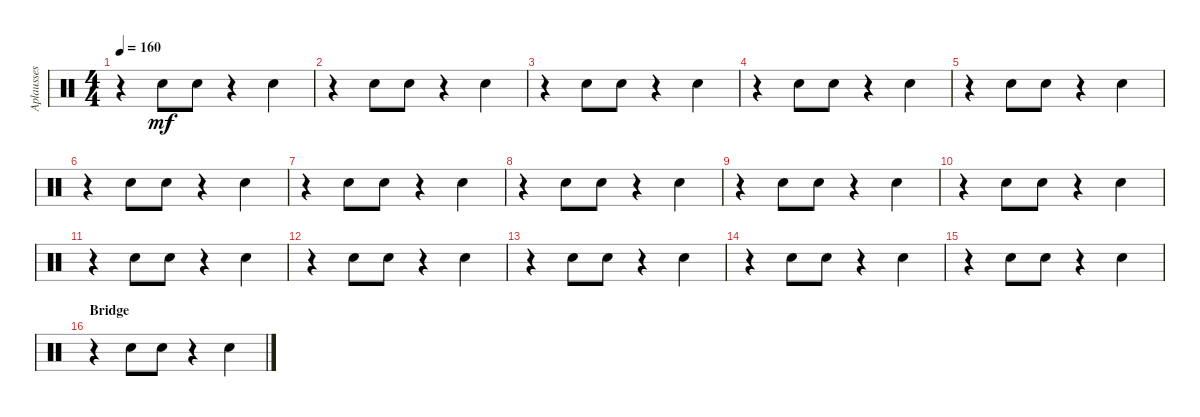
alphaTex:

\track ("Aplausses" "Aplausses") {instrument percussion}
\staff {score}
\articulation defaults
\ts (4 4)
\tempo 160
\clef neutral
\ks c
r.4{dy mf} "Hand Clap (hit)".8 "Hand Clap (hit)".8 r.4 "Hand Clap (hit)".4 |
r.4 "Hand Clap (hit)".8 "Hand Clap (hit)".8 r.4 "Hand Clap (hit)".4 |
r.4 "Hand Clap (hit)".8 "Hand Clap (hit)".8 r.4 "Hand Clap (hit)".4 |
r.4 "Hand Clap (hit)".8 "Hand Clap (hit)".8 r.4 "Hand Clap (hit)".4 |
r.4 "Hand Clap (hit)".8 "Hand Clap (hit)".8 r.4 "Hand Clap (hit)".4 |
r.4 "Hand Clap (hit)".8 "Hand Clap (hit)".8 r.4 "Hand Clap (hit)".4 |
r.4 "Hand Clap (hit)".8 "Hand Clap (hit)".8 r.4 "Hand Clap (hit)".4 |
r.4 "Hand Clap (hit)".8 "Hand Clap (hit)".8 r.4 "Hand Clap (hit)".4 |
r.4 "Hand Clap (hit)".8 "Hand Clap (hit)".8 r.4 "Hand Clap (hit)".4 |
r.4 "Hand Clap (hit)".8 "Hand Clap (hit)".8 r.4 "Hand Clap (hit)".4 |
r.4 "Hand Clap (hit)".8 "Hand Clap (hit)".8 r.4 "Hand Clap (hit)".4 |
r.4 "Hand Clap (hit)".8 "Hand Clap (hit)".8 r.4 "Hand Clap (hit)".4 |
r.4 "Hand Clap (hit)".8 "Hand Clap (hit)".8 r.4 "Hand Clap (hit)".4 |
r.4 "Hand Clap (hit)".8 "Hand Clap (hit)".8 r.4 "Hand Clap (hit)".4 |
r.4 "Hand Clap (hit)".8 "Hand Clap (hit)".8 r.4 "Hand Clap (hit)".4 |
\section ("" "Bridge")
r.4 "Hand Clap (hit)".8 "Hand Clap (hit)".8 r.4 "Hand Clap (hit)".4
